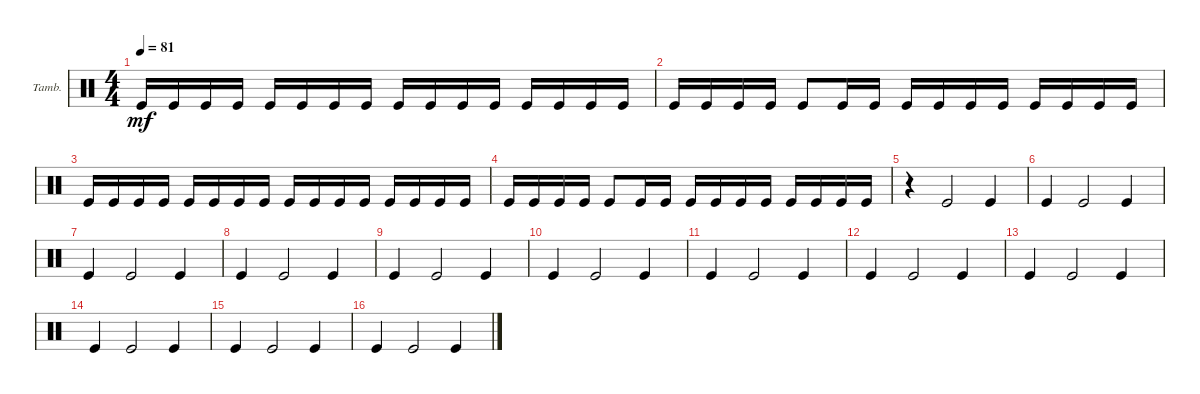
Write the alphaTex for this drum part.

\bracketExtendMode groupsimilarinstruments
\firstSystemTrackNameOrientation horizontal
\otherSystemsTrackNameOrientation horizontal
\track ("Tambourine" "Tamb.") {instrument percussion}
\staff {score}
\articulation defaults
\ts (4 4)
\tempo 81
\clef neutral
\ks c "Kick (hit)".16{dy mf} "Kick (hit)".16 "Kick (hit)".16 "Kick (hit)".16 "Kick (hit)".16 "Kick (hit)".16 "Kick (hit)".16 "Kick (hit)".16 "Kick (hit)".16 "Kick (hit)".16 "Kick (hit)".16 "Kick (hit)".16 "Kick (hit)".16 "Kick (hit)".16 "Kick (hit)".16 "Kick (hit)".16
|
"Kick (hit)".16 "Kick (hit)".16 "Kick (hit)".16 "Kick (hit)".16 "Kick (hit)".8 "Kick (hit)".16 "Kick (hit)".16 "Kick (hit)".16 "Kick (hit)".16 "Kick (hit)".16 "Kick (hit)".16 "Kick (hit)".16 "Kick (hit)".16 "Kick (hit)".16 "Kick (hit)".16 |
"Kick (hit)".16 "Kick (hit)".16 "Kick (hit)".16 "Kick (hit)".16 "Kick (hit)".16 "Kick (hit)".16 "Kick (hit)".16 "Kick (hit)".16 "Kick (hit)".16 "Kick (hit)".16 "Kick (hit)".16 "Kick (hit)".16 "Kick (hit)".16 "Kick (hit)".16 "Kick (hit)".16 "Kick (hit)".16 |
"Kick (hit)".16 "Kick (hit)".16 "Kick (hit)".16 "Kick (hit)".16 "Kick (hit)".8 "Kick (hit)".16 "Kick (hit)".16 "Kick (hit)".16 "Kick (hit)".16 "Kick (hit)".16 "Kick (hit)".16 "Kick (hit)".16 "Kick (hit)".16 "Kick (hit)".16 "Kick (hit)".16 |
r.4 "Kick (hit)".2 "Kick (hit)".4 |
"Kick (hit)".4 "Kick (hit)".2 "Kick (hit)".4 |
"Kick (hit)".4 "Kick (hit)".2 "Kick (hit)".4 |
"Kick (hit)".4 "Kick (hit)".2 "Kick (hit)".4 |
"Kick (hit)".4 "Kick (hit)".2 "Kick (hit)".4 |
"Kick (hit)".4 "Kick (hit)".2 "Kick (hit)".4 |
"Kick (hit)".4 "Kick (hit)".2 "Kick (hit)".4 |
"Kick (hit)".4 "Kick (hit)".2 "Kick (hit)".4 |
"Kick (hit)".4 "Kick (hit)".2 "Kick (hit)".4 |
"Kick (hit)".4 "Kick (hit)".2 "Kick (hit)".4 |
"Kick (hit)".4 "Kick (hit)".2 "Kick (hit)".4 |
"Kick (hit)".4 "Kick (hit)".2 "Kick (hit)".4
